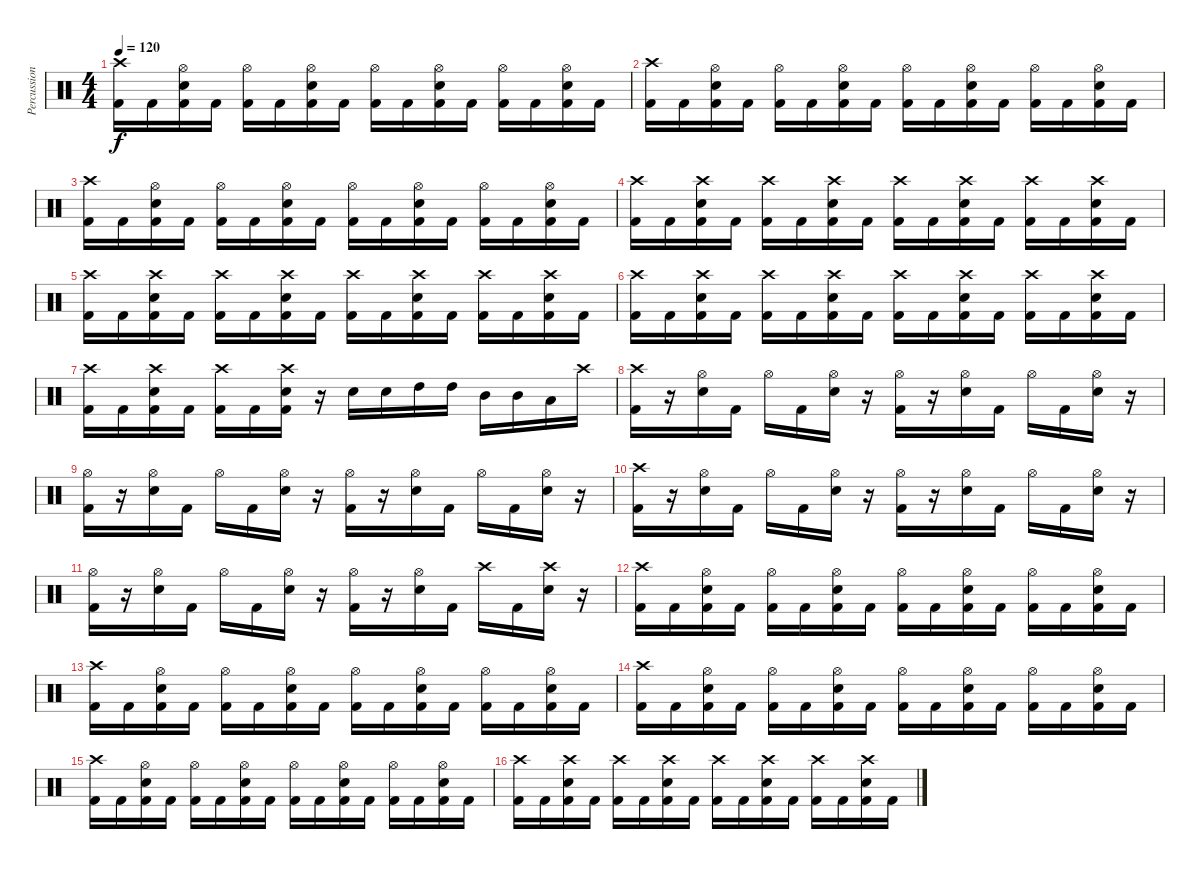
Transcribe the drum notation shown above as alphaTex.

\track ("Percussion" "Percussion") {instrument percussion}
\staff {score}
\articulation defaults
\ts (4 4)
\tempo 120
\clef neutral
\ks c
("Crash high (hit)" "Kick (hit) 2").16{dy f} "Kick (hit) 2".16 ("Hi-Hat (open)" "Snare (hit) 2" "Kick (hit) 2").16 "Kick (hit) 2".16 ("Hi-Hat (open)" "Kick (hit) 2").16 "Kick (hit) 2".16 ("Hi-Hat (open)" "Snare (hit) 2" "Kick (hit) 2").16 "Kick (hit) 2".16 ("Hi-Hat (open)" "Kick (hit) 2").16 "Kick (hit) 2".16 ("Hi-Hat (open)" "Snare (hit) 2" "Kick (hit) 2").16 "Kick (hit) 2".16 ("Hi-Hat (open)" "Kick (hit) 2").16 "Kick (hit) 2".16 ("Hi-Hat (open)" "Snare (hit) 2" "Kick (hit) 2").16 "Kick (hit) 2".16 |
("Crash high (hit)" "Kick (hit) 2").16 "Kick (hit) 2".16 ("Hi-Hat (open)" "Snare (hit) 2" "Kick (hit) 2").16 "Kick (hit) 2".16 ("Hi-Hat (open)" "Kick (hit) 2").16 "Kick (hit) 2".16 ("Hi-Hat (open)" "Snare (hit) 2" "Kick (hit) 2").16 "Kick (hit) 2".16 ("Hi-Hat (open)" "Kick (hit) 2").16 "Kick (hit) 2".16 ("Hi-Hat (open)" "Snare (hit) 2" "Kick (hit) 2").16 "Kick (hit) 2".16 ("Hi-Hat (open)" "Kick (hit) 2").16 "Kick (hit) 2".16 ("Hi-Hat (open)" "Snare (hit) 2" "Kick (hit) 2").16 "Kick (hit) 2".16 |
("Crash high (hit)" "Kick (hit) 2").16 "Kick (hit) 2".16 ("Hi-Hat (open)" "Snare (hit) 2" "Kick (hit) 2").16 "Kick (hit) 2".16 ("Hi-Hat (open)" "Kick (hit) 2").16 "Kick (hit) 2".16 ("Hi-Hat (open)" "Snare (hit) 2" "Kick (hit) 2").16 "Kick (hit) 2".16 ("Hi-Hat (open)" "Kick (hit) 2").16 "Kick (hit) 2".16 ("Hi-Hat (open)" "Snare (hit) 2" "Kick (hit) 2").16 "Kick (hit) 2".16 ("Hi-Hat (open)" "Kick (hit) 2").16 "Kick (hit) 2".16 ("Hi-Hat (open)" "Snare (hit) 2" "Kick (hit) 2").16 "Kick (hit) 2".16 |
("Crash high (hit)" "Kick (hit) 2").16 "Kick (hit) 2".16 ("Crash high (hit)" "Snare (hit) 2" "Kick (hit) 2").16 "Kick (hit) 2".16 ("Crash high (hit)" "Kick (hit) 2").16 "Kick (hit) 2".16 ("Crash high (hit)" "Snare (hit) 2" "Kick (hit) 2").16 "Kick (hit) 2".16 ("Crash high (hit)" "Kick (hit) 2").16 "Kick (hit) 2".16 ("Crash high (hit)" "Snare (hit) 2" "Kick (hit) 2").16 "Kick (hit) 2".16 ("Crash high (hit)" "Kick (hit) 2").16 "Kick (hit) 2".16 ("Crash high (hit)" "Snare (hit) 2" "Kick (hit) 2").16 "Kick (hit) 2".16 |
("Crash high (hit)" "Kick (hit) 2").16 "Kick (hit) 2".16 ("Crash high (hit)" "Snare (hit) 2" "Kick (hit) 2").16 "Kick (hit) 2".16 ("Crash high (hit)" "Kick (hit) 2").16 "Kick (hit) 2".16 ("Crash high (hit)" "Snare (hit) 2" "Kick (hit) 2").16 "Kick (hit) 2".16 ("Crash high (hit)" "Kick (hit) 2").16 "Kick (hit) 2".16 ("Crash high (hit)" "Snare (hit) 2" "Kick (hit) 2").16 "Kick (hit) 2".16 ("Crash high (hit)" "Kick (hit) 2").16 "Kick (hit) 2".16 ("Crash high (hit)" "Snare (hit) 2" "Kick (hit) 2").16 "Kick (hit) 2".16 |
("Crash high (hit)" "Kick (hit) 2").16 "Kick (hit) 2".16 ("Crash high (hit)" "Snare (hit) 2" "Kick (hit) 2").16 "Kick (hit) 2".16 ("Crash high (hit)" "Kick (hit) 2").16 "Kick (hit) 2".16 ("Crash high (hit)" "Snare (hit) 2" "Kick (hit) 2").16 "Kick (hit) 2".16 ("Crash high (hit)" "Kick (hit) 2").16 "Kick (hit) 2".16 ("Crash high (hit)" "Snare (hit) 2" "Kick (hit) 2").16 "Kick (hit) 2".16 ("Crash high (hit)" "Kick (hit) 2").16 "Kick (hit) 2".16 ("Crash high (hit)" "Snare (hit) 2" "Kick (hit) 2").16 "Kick (hit) 2".16 |
("Crash high (hit)" "Kick (hit) 2").16 "Kick (hit) 2".16 ("Crash high (hit)" "Snare (hit) 2" "Kick (hit) 2").16 "Kick (hit) 2".16 ("Crash high (hit)" "Kick (hit) 2").16 "Kick (hit) 2".16 ("Crash high (hit)" "Snare (hit) 2" "Kick (hit) 2").16 r.16 "Snare (hit) 2".16 "Snare (hit) 2".16 "High Tom (hit)".16 "High Tom (hit)".16 "Mid Tom (hit)".16 "Mid Tom (hit)".16 "Low Tom (hit)".16 "Crash high (hit)".16 |
("Crash high (hit)" "Kick (hit) 2").16 r.16 ("Hi-Hat (open)" "Snare (hit) 2").16 "Kick (hit) 2".16 "Hi-Hat (open)".16 "Kick (hit) 2".16 ("Hi-Hat (open)" "Snare (hit) 2").16 r.16 ("Hi-Hat (open)" "Kick (hit) 2").16 r.16 ("Hi-Hat (open)" "Snare (hit) 2").16 "Kick (hit) 2".16 "Hi-Hat (open)".16 "Kick (hit) 2".16 ("Hi-Hat (open)" "Snare (hit) 2").16 r.16 |
("Hi-Hat (open)" "Kick (hit) 2").16 r.16 ("Hi-Hat (open)" "Snare (hit) 2").16 "Kick (hit) 2".16 "Hi-Hat (open)".16 "Kick (hit) 2".16 ("Hi-Hat (open)" "Snare (hit) 2").16 r.16 ("Hi-Hat (open)" "Kick (hit) 2").16 r.16 ("Hi-Hat (open)" "Snare (hit) 2").16 "Kick (hit) 2".16 "Hi-Hat (open)".16 "Kick (hit) 2".16 ("Hi-Hat (open)" "Snare (hit) 2").16 r.16 |
("Crash high (hit)" "Kick (hit) 2").16 r.16 ("Hi-Hat (open)" "Snare (hit) 2").16 "Kick (hit) 2".16 "Hi-Hat (open)".16 "Kick (hit) 2".16 ("Hi-Hat (open)" "Snare (hit) 2").16 r.16 ("Hi-Hat (open)" "Kick (hit) 2").16 r.16 ("Hi-Hat (open)" "Snare (hit) 2").16 "Kick (hit) 2".16 "Hi-Hat (open)".16 "Kick (hit) 2".16 ("Hi-Hat (open)" "Snare (hit) 2").16 r.16 |
("Hi-Hat (open)" "Kick (hit) 2").16 r.16 ("Hi-Hat (open)" "Snare (hit) 2").16 "Kick (hit) 2".16 "Hi-Hat (open)".16 "Kick (hit) 2".16 ("Hi-Hat (open)" "Snare (hit) 2").16 r.16 ("Hi-Hat (open)" "Kick (hit) 2").16 r.16 ("Hi-Hat (open)" "Snare (hit) 2").16 "Kick (hit) 2".16 "Crash high (hit)".16 "Kick (hit) 2".16 ("Crash high (hit)" "Snare (hit) 2").16 r.16 |
("Crash high (hit)" "Kick (hit) 2").16 "Kick (hit) 2".16 ("Hi-Hat (open)" "Snare (hit) 2" "Kick (hit) 2").16 "Kick (hit) 2".16 ("Hi-Hat (open)" "Kick (hit) 2").16 "Kick (hit) 2".16 ("Hi-Hat (open)" "Snare (hit) 2" "Kick (hit) 2").16 "Kick (hit) 2".16 ("Hi-Hat (open)" "Kick (hit) 2").16 "Kick (hit) 2".16 ("Hi-Hat (open)" "Snare (hit) 2" "Kick (hit) 2").16 "Kick (hit) 2".16 ("Hi-Hat (open)" "Kick (hit) 2").16 "Kick (hit) 2".16 ("Hi-Hat (open)" "Snare (hit) 2" "Kick (hit) 2").16 "Kick (hit) 2".16 |
("Crash high (hit)" "Kick (hit) 2").16 "Kick (hit) 2".16 ("Hi-Hat (open)" "Snare (hit) 2" "Kick (hit) 2").16 "Kick (hit) 2".16 ("Hi-Hat (open)" "Kick (hit) 2").16 "Kick (hit) 2".16 ("Hi-Hat (open)" "Snare (hit) 2" "Kick (hit) 2").16 "Kick (hit) 2".16 ("Hi-Hat (open)" "Kick (hit) 2").16 "Kick (hit) 2".16 ("Hi-Hat (open)" "Snare (hit) 2" "Kick (hit) 2").16 "Kick (hit) 2".16 ("Hi-Hat (open)" "Kick (hit) 2").16 "Kick (hit) 2".16 ("Hi-Hat (open)" "Snare (hit) 2" "Kick (hit) 2").16 "Kick (hit) 2".16 |
("Crash high (hit)" "Kick (hit) 2").16 "Kick (hit) 2".16 ("Hi-Hat (open)" "Snare (hit) 2" "Kick (hit) 2").16 "Kick (hit) 2".16 ("Hi-Hat (open)" "Kick (hit) 2").16 "Kick (hit) 2".16 ("Hi-Hat (open)" "Snare (hit) 2" "Kick (hit) 2").16 "Kick (hit) 2".16 ("Hi-Hat (open)" "Kick (hit) 2").16 "Kick (hit) 2".16 ("Hi-Hat (open)" "Snare (hit) 2" "Kick (hit) 2").16 "Kick (hit) 2".16 ("Hi-Hat (open)" "Kick (hit) 2").16 "Kick (hit) 2".16 ("Hi-Hat (open)" "Snare (hit) 2" "Kick (hit) 2").16 "Kick (hit) 2".16 |
("Crash high (hit)" "Kick (hit) 2").16 "Kick (hit) 2".16 ("Hi-Hat (open)" "Snare (hit) 2" "Kick (hit) 2").16 "Kick (hit) 2".16 ("Hi-Hat (open)" "Kick (hit) 2").16 "Kick (hit) 2".16 ("Hi-Hat (open)" "Snare (hit) 2" "Kick (hit) 2").16 "Kick (hit) 2".16 ("Hi-Hat (open)" "Kick (hit) 2").16 "Kick (hit) 2".16 ("Hi-Hat (open)" "Snare (hit) 2" "Kick (hit) 2").16 "Kick (hit) 2".16 ("Hi-Hat (open)" "Kick (hit) 2").16 "Kick (hit) 2".16 ("Hi-Hat (open)" "Snare (hit) 2" "Kick (hit) 2").16 "Kick (hit) 2".16 |
("Crash high (hit)" "Kick (hit) 2").16 "Kick (hit) 2".16 ("Crash high (hit)" "Snare (hit) 2" "Kick (hit) 2").16 "Kick (hit) 2".16 ("Crash high (hit)" "Kick (hit) 2").16 "Kick (hit) 2".16 ("Crash high (hit)" "Snare (hit) 2" "Kick (hit) 2").16 "Kick (hit) 2".16 ("Crash high (hit)" "Kick (hit) 2").16 "Kick (hit) 2".16 ("Crash high (hit)" "Snare (hit) 2" "Kick (hit) 2").16 "Kick (hit) 2".16 ("Crash high (hit)" "Kick (hit) 2").16 "Kick (hit) 2".16 ("Crash high (hit)" "Snare (hit) 2" "Kick (hit) 2").16 "Kick (hit) 2".16
